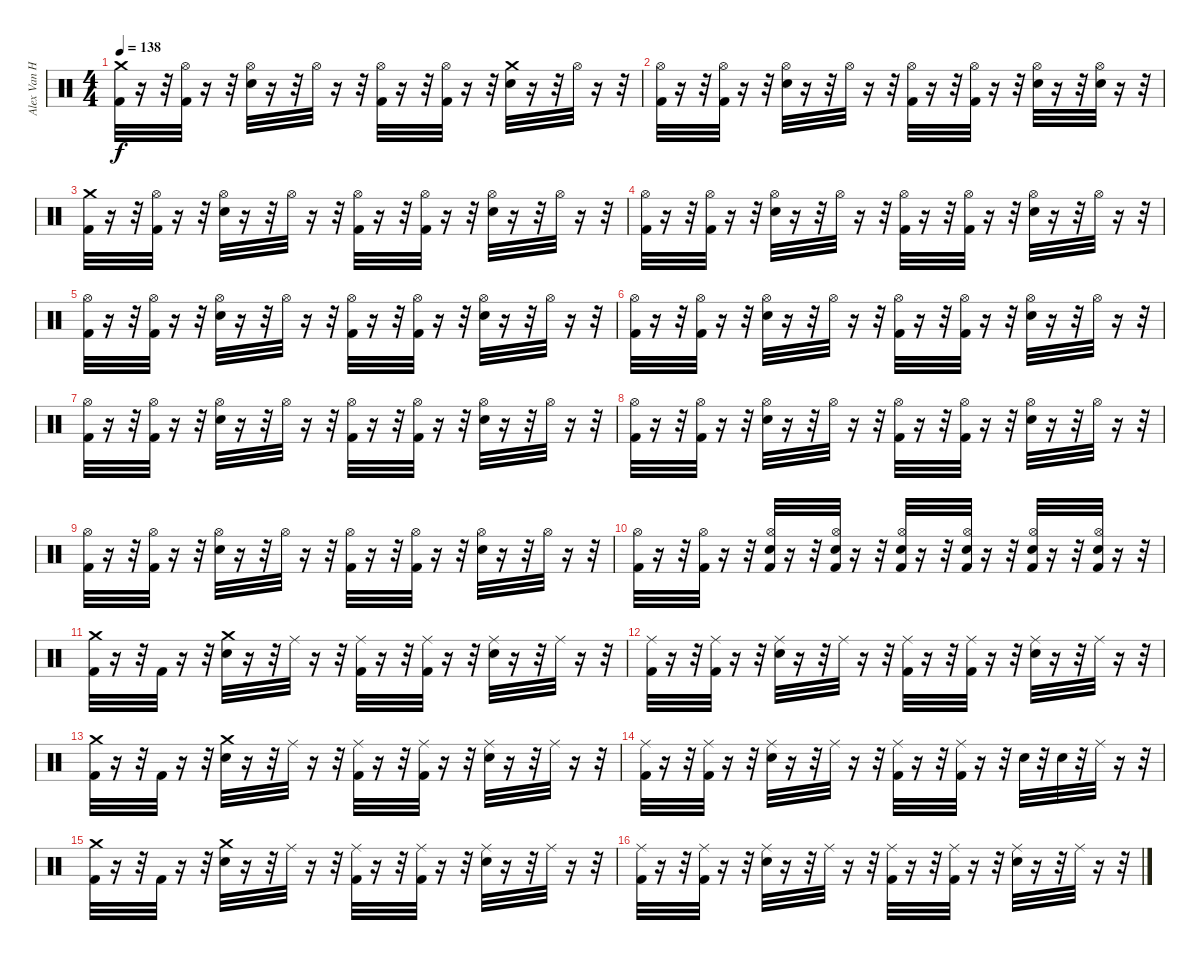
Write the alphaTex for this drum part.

\track ("Alex Van Halen (Drums)" "Alex Van H") {instrument percussion}
\staff {score}
\articulation defaults
\ts (4 4)
\tempo 138
\clef neutral
\ks c
("Kick (hit) 2" "Crash medium (hit)").32{dy f} r.16 r.32 ("Kick (hit) 2" "Hi-Hat (open)").32 r.16 r.32 ("Snare (hit) 2" "Hi-Hat (open)").32 r.16 r.32 "Hi-Hat (open)".32 r.16 r.32 ("Kick (hit) 2" "Hi-Hat (open)").32 r.16 r.32 ("Kick (hit) 2" "Hi-Hat (open)").32 r.16 r.32 ("Snare (hit) 2" "Crash medium (hit)").32 r.16 r.32 "Hi-Hat (open)".32 r.16 r.32 |
("Kick (hit) 2" "Hi-Hat (open)").32 r.16 r.32 ("Kick (hit) 2" "Hi-Hat (open)").32 r.16 r.32 ("Snare (hit) 2" "Hi-Hat (open)").32 r.16 r.32 "Hi-Hat (open)".32 r.16 r.32 ("Kick (hit) 2" "Hi-Hat (open)").32 r.16 r.32 ("Kick (hit) 2" "Hi-Hat (open)").32 r.16 r.32 ("Snare (hit) 2" "Hi-Hat (open)").32 r.16 r.32 ("Snare (hit) 2" "Hi-Hat (open)").32 r.16 r.32 |
("Kick (hit) 2" "Crash medium (hit)").32 r.16 r.32 ("Kick (hit) 2" "Hi-Hat (open)").32 r.16 r.32 ("Snare (hit) 2" "Hi-Hat (open)").32 r.16 r.32 "Hi-Hat (open)".32 r.16 r.32 ("Kick (hit) 2" "Hi-Hat (open)").32 r.16 r.32 ("Kick (hit) 2" "Hi-Hat (open)").32 r.16 r.32 ("Snare (hit) 2" "Hi-Hat (open)").32 r.16 r.32 "Hi-Hat (open)".32 r.16 r.32 |
("Kick (hit) 2" "Hi-Hat (open)").32 r.16 r.32 ("Kick (hit) 2" "Hi-Hat (open)").32 r.16 r.32 ("Snare (hit) 2" "Hi-Hat (open)").32 r.16 r.32 "Hi-Hat (open)".32 r.16 r.32 ("Kick (hit) 2" "Hi-Hat (open)").32 r.16 r.32 ("Kick (hit) 2" "Hi-Hat (open)").32 r.16 r.32 ("Snare (hit) 2" "Hi-Hat (open)").32 r.16 r.32 "Hi-Hat (open)".32 r.16 r.32 |
("Kick (hit) 2" "Hi-Hat (open)").32 r.16 r.32 ("Kick (hit) 2" "Hi-Hat (open)").32 r.16 r.32 ("Snare (hit) 2" "Hi-Hat (open)").32 r.16 r.32 "Hi-Hat (open)".32 r.16 r.32 ("Kick (hit) 2" "Hi-Hat (open)").32 r.16 r.32 ("Kick (hit) 2" "Hi-Hat (open)").32 r.16 r.32 ("Snare (hit) 2" "Hi-Hat (open)").32 r.16 r.32 "Hi-Hat (open)".32 r.16 r.32 |
("Kick (hit) 2" "Hi-Hat (open)").32 r.16 r.32 ("Kick (hit) 2" "Hi-Hat (open)").32 r.16 r.32 ("Snare (hit) 2" "Hi-Hat (open)").32 r.16 r.32 "Hi-Hat (open)".32 r.16 r.32 ("Kick (hit) 2" "Hi-Hat (open)").32 r.16 r.32 ("Kick (hit) 2" "Hi-Hat (open)").32 r.16 r.32 ("Snare (hit) 2" "Hi-Hat (open)").32 r.16 r.32 "Hi-Hat (open)".32 r.16 r.32 |
("Kick (hit) 2" "Hi-Hat (open)").32 r.16 r.32 ("Kick (hit) 2" "Hi-Hat (open)").32 r.16 r.32 ("Snare (hit) 2" "Hi-Hat (open)").32 r.16 r.32 "Hi-Hat (open)".32 r.16 r.32 ("Kick (hit) 2" "Hi-Hat (open)").32 r.16 r.32 ("Kick (hit) 2" "Hi-Hat (open)").32 r.16 r.32 ("Snare (hit) 2" "Hi-Hat (open)").32 r.16 r.32 "Hi-Hat (open)".32 r.16 r.32 |
("Kick (hit) 2" "Hi-Hat (open)").32 r.16 r.32 ("Kick (hit) 2" "Hi-Hat (open)").32 r.16 r.32 ("Snare (hit) 2" "Hi-Hat (open)").32 r.16 r.32 "Hi-Hat (open)".32 r.16 r.32 ("Kick (hit) 2" "Hi-Hat (open)").32 r.16 r.32 ("Kick (hit) 2" "Hi-Hat (open)").32 r.16 r.32 ("Snare (hit) 2" "Hi-Hat (open)").32 r.16 r.32 "Hi-Hat (open)".32 r.16 r.32 |
("Kick (hit) 2" "Hi-Hat (open)").32 r.16 r.32 ("Kick (hit) 2" "Hi-Hat (open)").32 r.16 r.32 ("Snare (hit) 2" "Hi-Hat (open)").32 r.16 r.32 "Hi-Hat (open)".32 r.16 r.32 ("Kick (hit) 2" "Hi-Hat (open)").32 r.16 r.32 ("Kick (hit) 2" "Hi-Hat (open)").32 r.16 r.32 ("Snare (hit) 2" "Hi-Hat (open)").32 r.16 r.32 "Hi-Hat (open)".32 r.16 r.32 |
("Kick (hit) 2" "Hi-Hat (open)").32 r.16 r.32 ("Kick (hit) 2" "Hi-Hat (open)").32 r.16 r.32 ("Snare (hit) 2" "Kick (hit) 2" "Hi-Hat (open)").32 r.16 r.32 ("Snare (hit) 2" "Kick (hit) 2" "Hi-Hat (open)").32 r.16 r.32 ("Snare (hit) 2" "Kick (hit) 2" "Hi-Hat (open)").32 r.16 r.32 ("Snare (hit) 2" "Kick (hit) 2" "Hi-Hat (open)").32 r.16 r.32 ("Snare (hit) 2" "Kick (hit) 2" "Hi-Hat (open)").32 r.16 r.32 ("Snare (hit) 2" "Kick (hit) 2" "Hi-Hat (open)").32 r.16 r.32 |
("Kick (hit) 2" "Crash medium (hit)").32 r.16 r.32 "Kick (hit) 2".32 r.16 r.32 ("Snare (hit) 2" "Crash medium (hit)").32 r.16 r.32 "Ride (middle)".32 r.16 r.32 ("Kick (hit) 2" "Ride (middle)").32 r.16 r.32 ("Kick (hit) 2" "Ride (middle)").32 r.16 r.32 ("Snare (hit) 2" "Ride (middle)").32 r.16 r.32 "Ride (middle)".32 r.16 r.32 |
("Kick (hit) 2" "Ride (middle)").32 r.16 r.32 ("Kick (hit) 2" "Ride (middle)").32 r.16 r.32 ("Snare (hit) 2" "Ride (middle)").32 r.16 r.32 "Ride (middle)".32 r.16 r.32 ("Kick (hit) 2" "Ride (middle)").32 r.16 r.32 ("Kick (hit) 2" "Ride (middle)").32 r.16 r.32 ("Snare (hit) 2" "Ride (middle)").32 r.16 r.32 "Ride (middle)".32 r.16 r.32 |
("Kick (hit) 2" "Crash medium (hit)").32 r.16 r.32 "Kick (hit) 2".32 r.16 r.32 ("Snare (hit) 2" "Crash medium (hit)").32 r.16 r.32 "Ride (middle)".32 r.16 r.32 ("Kick (hit) 2" "Ride (middle)").32 r.16 r.32 ("Kick (hit) 2" "Ride (middle)").32 r.16 r.32 ("Snare (hit) 2" "Ride (middle)").32 r.16 r.32 "Ride (middle)".32 r.16 r.32 |
("Kick (hit) 2" "Ride (middle)").32 r.16 r.32 ("Kick (hit) 2" "Ride (middle)").32 r.16 r.32 ("Snare (hit) 2" "Ride (middle)").32 r.16 r.32 "Ride (middle)".32 r.16 r.32 ("Kick (hit) 2" "Ride (middle)").32 r.16 r.32 ("Kick (hit) 2" "Ride (middle)").32 r.16 r.32 "Snare (hit) 2".32 r.32 "Snare (hit) 2".32 r.32 "Ride (middle)".32 r.16 r.32 |
("Kick (hit) 2" "Crash medium (hit)").32 r.16 r.32 "Kick (hit) 2".32 r.16 r.32 ("Snare (hit) 2" "Crash medium (hit)").32 r.16 r.32 "Ride (middle)".32 r.16 r.32 ("Kick (hit) 2" "Ride (middle)").32 r.16 r.32 ("Kick (hit) 2" "Ride (middle)").32 r.16 r.32 ("Snare (hit) 2" "Ride (middle)").32 r.16 r.32 "Ride (middle)".32 r.16 r.32 |
("Kick (hit) 2" "Ride (middle)").32 r.16 r.32 ("Kick (hit) 2" "Ride (middle)").32 r.16 r.32 ("Snare (hit) 2" "Ride (middle)").32 r.16 r.32 "Ride (middle)".32 r.16 r.32 ("Kick (hit) 2" "Ride (middle)").32 r.16 r.32 ("Kick (hit) 2" "Ride (middle)").32 r.16 r.32 ("Snare (hit) 2" "Ride (middle)").32 r.16 r.32 "Ride (middle)".32 r.16 r.32
